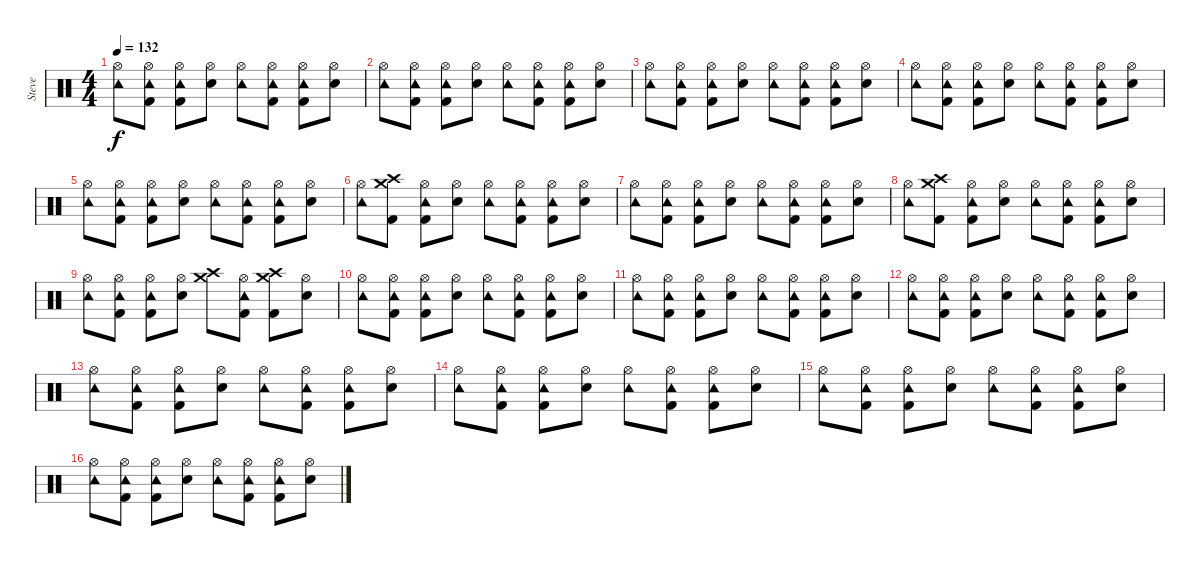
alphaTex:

\track ("Steve" "Steve") {instrument percussion}
\staff {score}
\articulation defaults
\ts (4 4)
\tempo 132
\clef neutral
\ks c
("Hi-Hat (open)" "Tambourine (hit)").8{dy f} ("Hi-Hat (open)" "Tambourine (hit)" "Kick (hit) 2").8 ("Hi-Hat (open)" "Tambourine (hit)" "Kick (hit) 2").8 ("Hi-Hat (open)" "Snare (hit) 2").8 ("Hi-Hat (open)" "Tambourine (hit)").8 ("Hi-Hat (open)" "Tambourine (hit)" "Kick (hit) 2").8 ("Hi-Hat (open)" "Tambourine (hit)" "Kick (hit) 2").8 ("Hi-Hat (open)" "Snare (hit) 2").8 |
("Hi-Hat (open)" "Tambourine (hit)").8 ("Hi-Hat (open)" "Tambourine (hit)" "Kick (hit) 2").8 ("Hi-Hat (open)" "Tambourine (hit)" "Kick (hit) 2").8 ("Hi-Hat (open)" "Snare (hit) 2").8 ("Hi-Hat (open)" "Tambourine (hit)").8 ("Hi-Hat (open)" "Tambourine (hit)" "Kick (hit) 2").8 ("Hi-Hat (open)" "Tambourine (hit)" "Kick (hit) 2").8 ("Hi-Hat (open)" "Snare (hit) 2").8 |
("Hi-Hat (open)" "Tambourine (hit)").8 ("Hi-Hat (open)" "Tambourine (hit)" "Kick (hit) 2").8 ("Hi-Hat (open)" "Tambourine (hit)" "Kick (hit) 2").8 ("Hi-Hat (open)" "Snare (hit) 2").8 ("Hi-Hat (open)" "Tambourine (hit)").8 ("Hi-Hat (open)" "Tambourine (hit)" "Kick (hit) 2").8 ("Hi-Hat (open)" "Tambourine (hit)" "Kick (hit) 2").8 ("Hi-Hat (open)" "Snare (hit) 2").8 |
("Hi-Hat (open)" "Tambourine (hit)").8 ("Hi-Hat (open)" "Tambourine (hit)" "Kick (hit) 2").8 ("Hi-Hat (open)" "Tambourine (hit)" "Kick (hit) 2").8 ("Hi-Hat (open)" "Snare (hit) 2").8 ("Hi-Hat (open)" "Tambourine (hit)").8 ("Hi-Hat (open)" "Tambourine (hit)" "Kick (hit) 2").8 ("Hi-Hat (open)" "Tambourine (hit)" "Kick (hit) 2").8 ("Hi-Hat (open)" "Snare (hit) 2").8 |
("Hi-Hat (open)" "Tambourine (hit)").8 ("Hi-Hat (open)" "Tambourine (hit)" "Kick (hit) 2").8 ("Hi-Hat (open)" "Tambourine (hit)" "Kick (hit) 2").8 ("Hi-Hat (open)" "Snare (hit) 2").8 ("Hi-Hat (open)" "Tambourine (hit)").8 ("Hi-Hat (open)" "Tambourine (hit)" "Kick (hit) 2").8 ("Hi-Hat (open)" "Tambourine (hit)" "Kick (hit) 2").8 ("Hi-Hat (open)" "Snare (hit) 2").8 |
("Hi-Hat (open)" "Tambourine (hit)").8 ("Crash high (hit)" "Crash medium (hit)" "Kick (hit) 2").8 ("Hi-Hat (open)" "Tambourine (hit)" "Kick (hit) 2").8 ("Hi-Hat (open)" "Snare (hit) 2").8 ("Hi-Hat (open)" "Tambourine (hit)").8 ("Hi-Hat (open)" "Tambourine (hit)" "Kick (hit) 2").8 ("Hi-Hat (open)" "Tambourine (hit)" "Kick (hit) 2").8 ("Hi-Hat (open)" "Snare (hit) 2").8 |
("Hi-Hat (open)" "Tambourine (hit)").8 ("Hi-Hat (open)" "Tambourine (hit)" "Kick (hit) 2").8 ("Hi-Hat (open)" "Tambourine (hit)" "Kick (hit) 2").8 ("Hi-Hat (open)" "Snare (hit) 2").8 ("Hi-Hat (open)" "Tambourine (hit)").8 ("Hi-Hat (open)" "Tambourine (hit)" "Kick (hit) 2").8 ("Hi-Hat (open)" "Tambourine (hit)" "Kick (hit) 2").8 ("Hi-Hat (open)" "Snare (hit) 2").8 |
("Hi-Hat (open)" "Tambourine (hit)").8 ("Crash high (hit)" "Crash medium (hit)" "Kick (hit) 2").8 ("Hi-Hat (open)" "Tambourine (hit)" "Kick (hit) 2").8 ("Hi-Hat (open)" "Snare (hit) 2").8 ("Hi-Hat (open)" "Tambourine (hit)").8 ("Hi-Hat (open)" "Tambourine (hit)" "Kick (hit) 2").8 ("Hi-Hat (open)" "Tambourine (hit)" "Kick (hit) 2").8 ("Hi-Hat (open)" "Snare (hit) 2").8 |
("Hi-Hat (open)" "Tambourine (hit)").8 ("Hi-Hat (open)" "Tambourine (hit)" "Kick (hit) 2").8 ("Hi-Hat (open)" "Tambourine (hit)" "Kick (hit) 2").8 ("Hi-Hat (open)" "Snare (hit) 2").8 ("Crash high (hit)" "Crash medium (hit)").8 ("Hi-Hat (open)" "Tambourine (hit)" "Kick (hit) 2").8 ("Crash high (hit)" "Crash medium (hit)" "Kick (hit) 2").8 ("Hi-Hat (open)" "Snare (hit) 2").8 |
("Hi-Hat (open)" "Tambourine (hit)").8 ("Hi-Hat (open)" "Tambourine (hit)" "Kick (hit) 2").8 ("Hi-Hat (open)" "Tambourine (hit)" "Kick (hit) 2").8 ("Hi-Hat (open)" "Snare (hit) 2").8 ("Hi-Hat (open)" "Tambourine (hit)").8 ("Hi-Hat (open)" "Tambourine (hit)" "Kick (hit) 2").8 ("Hi-Hat (open)" "Tambourine (hit)" "Kick (hit) 2").8 ("Hi-Hat (open)" "Snare (hit) 2").8 |
("Hi-Hat (open)" "Tambourine (hit)").8 ("Hi-Hat (open)" "Tambourine (hit)" "Kick (hit) 2").8 ("Hi-Hat (open)" "Tambourine (hit)" "Kick (hit) 2").8 ("Hi-Hat (open)" "Snare (hit) 2").8 ("Hi-Hat (open)" "Tambourine (hit)").8 ("Hi-Hat (open)" "Tambourine (hit)" "Kick (hit) 2").8 ("Hi-Hat (open)" "Tambourine (hit)" "Kick (hit) 2").8 ("Hi-Hat (open)" "Snare (hit) 2").8 |
("Hi-Hat (open)" "Tambourine (hit)").8 ("Hi-Hat (open)" "Tambourine (hit)" "Kick (hit) 2").8 ("Hi-Hat (open)" "Tambourine (hit)" "Kick (hit) 2").8 ("Hi-Hat (open)" "Snare (hit) 2").8 ("Hi-Hat (open)" "Tambourine (hit)").8 ("Hi-Hat (open)" "Tambourine (hit)" "Kick (hit) 2").8 ("Hi-Hat (open)" "Tambourine (hit)" "Kick (hit) 2").8 ("Hi-Hat (open)" "Snare (hit) 2").8 |
("Hi-Hat (open)" "Tambourine (hit)").8 ("Hi-Hat (open)" "Tambourine (hit)" "Kick (hit) 2").8 ("Hi-Hat (open)" "Tambourine (hit)" "Kick (hit) 2").8 ("Hi-Hat (open)" "Snare (hit) 2").8 ("Hi-Hat (open)" "Tambourine (hit)").8 ("Hi-Hat (open)" "Tambourine (hit)" "Kick (hit) 2").8 ("Hi-Hat (open)" "Tambourine (hit)" "Kick (hit) 2").8 ("Hi-Hat (open)" "Snare (hit) 2").8 |
("Hi-Hat (open)" "Tambourine (hit)").8 ("Hi-Hat (open)" "Tambourine (hit)" "Kick (hit) 2").8 ("Hi-Hat (open)" "Tambourine (hit)" "Kick (hit) 2").8 ("Hi-Hat (open)" "Snare (hit) 2").8 ("Hi-Hat (open)" "Tambourine (hit)").8 ("Hi-Hat (open)" "Tambourine (hit)" "Kick (hit) 2").8 ("Hi-Hat (open)" "Tambourine (hit)" "Kick (hit) 2").8 ("Hi-Hat (open)" "Snare (hit) 2").8 |
("Hi-Hat (open)" "Tambourine (hit)").8 ("Hi-Hat (open)" "Tambourine (hit)" "Kick (hit) 2").8 ("Hi-Hat (open)" "Tambourine (hit)" "Kick (hit) 2").8 ("Hi-Hat (open)" "Snare (hit) 2").8 ("Hi-Hat (open)" "Tambourine (hit)").8 ("Hi-Hat (open)" "Tambourine (hit)" "Kick (hit) 2").8 ("Hi-Hat (open)" "Tambourine (hit)" "Kick (hit) 2").8 ("Hi-Hat (open)" "Snare (hit) 2").8 |
("Hi-Hat (open)" "Tambourine (hit)").8 ("Hi-Hat (open)" "Tambourine (hit)" "Kick (hit) 2").8 ("Hi-Hat (open)" "Tambourine (hit)" "Kick (hit) 2").8 ("Hi-Hat (open)" "Snare (hit) 2").8 ("Hi-Hat (open)" "Tambourine (hit)").8 ("Hi-Hat (open)" "Tambourine (hit)" "Kick (hit) 2").8 ("Hi-Hat (open)" "Tambourine (hit)" "Kick (hit) 2").8 ("Hi-Hat (open)" "Snare (hit) 2").8
